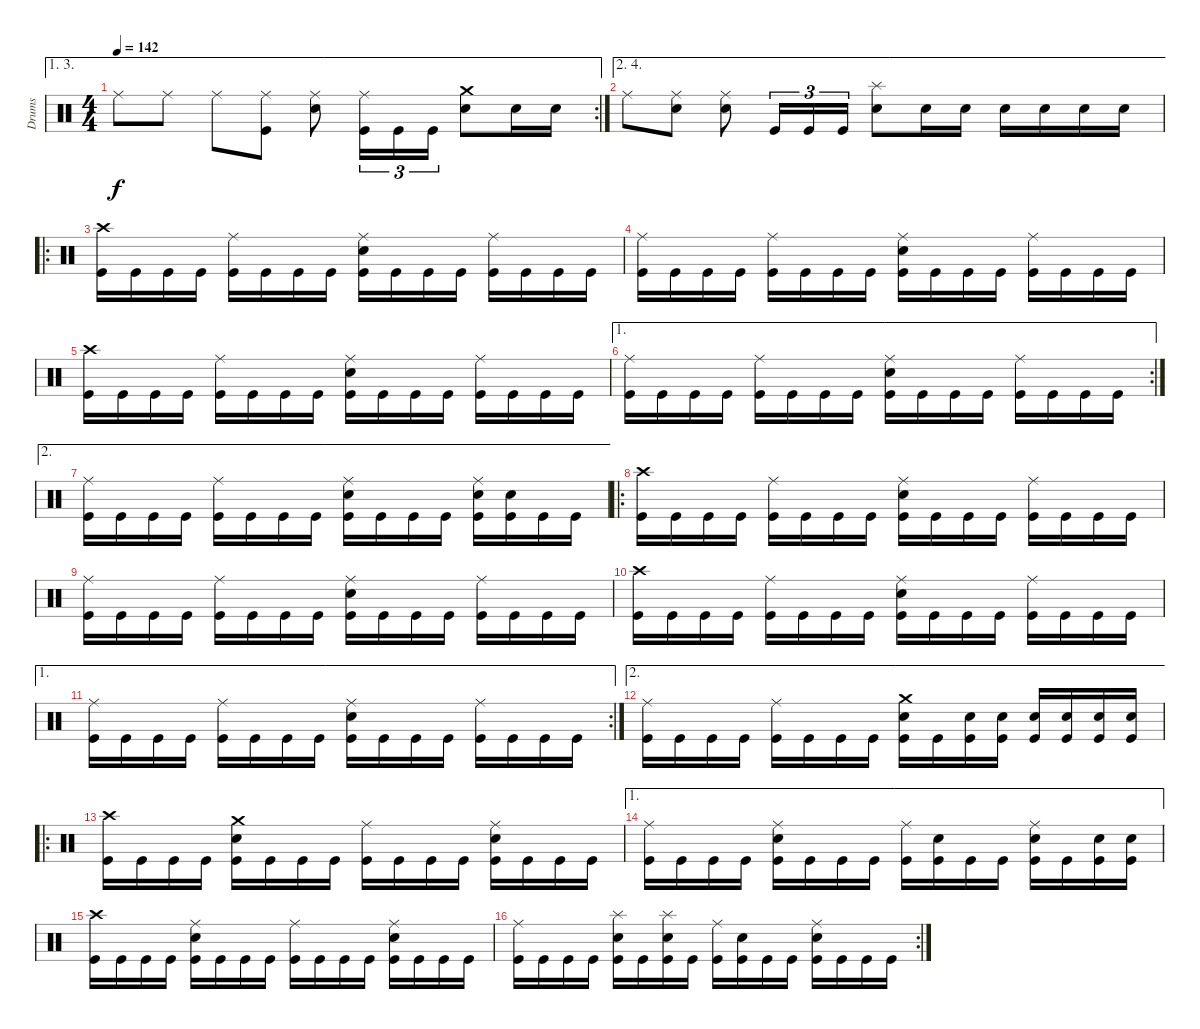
\track ("Drums" "Drums") {instrument percussion}
\staff {score}
\articulation defaults
\ae (1 3)
\rc 2
\ts (4 4)
\tempo 142
\clef neutral
\ks c "Ride (middle)".8{dy f} "Ride (middle)".8 "Ride (middle)".8
("Ride (middle)" "Kick (hit)").8 ("Ride (middle)" "Electric Snare (hit)").8 ("Ride (middle)" "Kick (hit)").16{tu (3 2)} "Kick (hit)".16{tu (3 2)} "Kick (hit)".16{tu (3 2)} ("Crash medium (hit)" "Electric Snare (hit)").8 "Electric Snare (hit)".16 "Electric Snare (hit)".16 |
\ae (2 4)
"Ride (middle)".8 ("Ride (middle)" "Electric Snare (hit)").8 ("Ride (middle)" "Electric Snare (hit)").8 "Kick (hit)".16{tu (3 2)} "Kick (hit)".16{tu (3 2)} "Kick (hit)".16{tu (3 2)} ("Splash (hit)" "Electric Snare (hit)").8 "Electric Snare (hit)".16 "Electric Snare (hit)".16 "Electric Snare (hit)".16 "Electric Snare (hit)".16 "Electric Snare (hit)".16 "Electric Snare (hit)".16 |
\ro
("Crash high (hit)" "Kick (hit)").16 "Kick (hit)".16 "Kick (hit)".16 "Kick (hit)".16 ("Ride (middle)" "Kick (hit)").16 "Kick (hit)".16 "Kick (hit)".16 "Kick (hit)".16 ("Ride (middle)" "Electric Snare (hit)" "Kick (hit)").16 "Kick (hit)".16 "Kick (hit)".16 "Kick (hit)".16 ("Ride (middle)" "Kick (hit)").16 "Kick (hit)".16 "Kick (hit)".16 "Kick (hit)".16 |
("Ride (middle)" "Kick (hit)").16 "Kick (hit)".16 "Kick (hit)".16 "Kick (hit)".16 ("Ride (middle)" "Kick (hit)").16 "Kick (hit)".16 "Kick (hit)".16 "Kick (hit)".16 ("Ride (middle)" "Electric Snare (hit)" "Kick (hit)").16 "Kick (hit)".16 "Kick (hit)".16 "Kick (hit)".16 ("Ride (middle)" "Kick (hit)").16 "Kick (hit)".16 "Kick (hit)".16 "Kick (hit)".16 |
("Crash high (hit)" "Kick (hit)").16 "Kick (hit)".16 "Kick (hit)".16 "Kick (hit)".16 ("Ride (middle)" "Kick (hit)").16 "Kick (hit)".16 "Kick (hit)".16 "Kick (hit)".16 ("Ride (middle)" "Electric Snare (hit)" "Kick (hit)").16 "Kick (hit)".16 "Kick (hit)".16 "Kick (hit)".16 ("Ride (middle)" "Kick (hit)").16 "Kick (hit)".16 "Kick (hit)".16 "Kick (hit)".16 |
\ae 1
\rc 2
("Ride (middle)" "Kick (hit)").16 "Kick (hit)".16 "Kick (hit)".16 "Kick (hit)".16 ("Ride (middle)" "Kick (hit)").16 "Kick (hit)".16 "Kick (hit)".16 "Kick (hit)".16 ("Ride (middle)" "Electric Snare (hit)" "Kick (hit)").16 "Kick (hit)".16 "Kick (hit)".16 "Kick (hit)".16 ("Ride (middle)" "Kick (hit)").16 "Kick (hit)".16 "Kick (hit)".16 "Kick (hit)".16 |
\ae 2
("Ride (middle)" "Kick (hit)").16 "Kick (hit)".16 "Kick (hit)".16 "Kick (hit)".16 ("Ride (middle)" "Kick (hit)").16 "Kick (hit)".16 "Kick (hit)".16 "Kick (hit)".16 ("Ride (middle)" "Electric Snare (hit)" "Kick (hit)").16 "Kick (hit)".16 "Kick (hit)".16 "Kick (hit)".16 ("Ride (middle)" "Electric Snare (hit)" "Kick (hit)").16 ("Electric Snare (hit)" "Kick (hit)").16 "Kick (hit)".16 "Kick (hit)".16 |
\ro
("Crash high (hit)" "Kick (hit)").16 "Kick (hit)".16 "Kick (hit)".16 "Kick (hit)".16 ("Ride (middle)" "Kick (hit)").16 "Kick (hit)".16 "Kick (hit)".16 "Kick (hit)".16 ("Ride (middle)" "Electric Snare (hit)" "Kick (hit)").16 "Kick (hit)".16 "Kick (hit)".16 "Kick (hit)".16 ("Ride (middle)" "Kick (hit)").16 "Kick (hit)".16 "Kick (hit)".16 "Kick (hit)".16 |
("Ride (middle)" "Kick (hit)").16 "Kick (hit)".16 "Kick (hit)".16 "Kick (hit)".16 ("Ride (middle)" "Kick (hit)").16 "Kick (hit)".16 "Kick (hit)".16 "Kick (hit)".16 ("Ride (middle)" "Electric Snare (hit)" "Kick (hit)").16 "Kick (hit)".16 "Kick (hit)".16 "Kick (hit)".16 ("Ride (middle)" "Kick (hit)").16 "Kick (hit)".16 "Kick (hit)".16 "Kick (hit)".16 |
("Crash high (hit)" "Kick (hit)").16 "Kick (hit)".16 "Kick (hit)".16 "Kick (hit)".16 ("Ride (middle)" "Kick (hit)").16 "Kick (hit)".16 "Kick (hit)".16 "Kick (hit)".16 ("Ride (middle)" "Electric Snare (hit)" "Kick (hit)").16 "Kick (hit)".16 "Kick (hit)".16 "Kick (hit)".16 ("Ride (middle)" "Kick (hit)").16 "Kick (hit)".16 "Kick (hit)".16 "Kick (hit)".16 |
\ae 1
\rc 2
("Ride (middle)" "Kick (hit)").16 "Kick (hit)".16 "Kick (hit)".16 "Kick (hit)".16 ("Ride (middle)" "Kick (hit)").16 "Kick (hit)".16 "Kick (hit)".16 "Kick (hit)".16 ("Ride (middle)" "Electric Snare (hit)" "Kick (hit)").16 "Kick (hit)".16 "Kick (hit)".16 "Kick (hit)".16 ("Ride (middle)" "Kick (hit)").16 "Kick (hit)".16 "Kick (hit)".16 "Kick (hit)".16 |
\ae 2
("Ride (middle)" "Kick (hit)").16 "Kick (hit)".16 "Kick (hit)".16 "Kick (hit)".16 ("Ride (middle)" "Kick (hit)").16 "Kick (hit)".16 "Kick (hit)".16 "Kick (hit)".16 ("Crash medium (hit)" "Electric Snare (hit)" "Kick (hit)").16 "Kick (hit)".16 ("Electric Snare (hit)" "Kick (hit)").16 ("Electric Snare (hit)" "Kick (hit)").16 ("Electric Snare (hit)" "Kick (hit)").16 ("Electric Snare (hit)" "Kick (hit)").16 ("Electric Snare (hit)" "Kick (hit)").16 ("Electric Snare (hit)" "Kick (hit)").16 |
\ro
("Crash high (hit)" "Kick (hit)").16 "Kick (hit)".16 "Kick (hit)".16 "Kick (hit)".16 ("Crash medium (hit)" "Electric Snare (hit)" "Kick (hit)").16 "Kick (hit)".16 "Kick (hit)".16 "Kick (hit)".16 ("Ride (middle)" "Kick (hit)").16 "Kick (hit)".16 "Kick (hit)".16 "Kick (hit)".16 ("Ride (middle)" "Electric Snare (hit)" "Kick (hit)").16 "Kick (hit)".16 "Kick (hit)".16 "Kick (hit)".16 |
\ae 1
("Ride (middle)" "Kick (hit)").16 "Kick (hit)".16 "Kick (hit)".16 "Kick (hit)".16 ("Ride (middle)" "Electric Snare (hit)" "Kick (hit)").16 "Kick (hit)".16 "Kick (hit)".16 "Kick (hit)".16 ("Ride (middle)" "Kick (hit)").16 ("Electric Snare (hit)" "Kick (hit)").16 "Kick (hit)".16 "Kick (hit)".16 ("Ride (middle)" "Electric Snare (hit)" "Kick (hit)").16 "Kick (hit)".16 ("Electric Snare (hit)" "Kick (hit)").16 ("Electric Snare (hit)" "Kick (hit)").16 |
("Crash high (hit)" "Kick (hit)").16 "Kick (hit)".16 "Kick (hit)".16 "Kick (hit)".16 ("Ride (middle)" "Electric Snare (hit)" "Kick (hit)").16 "Kick (hit)".16 "Kick (hit)".16 "Kick (hit)".16 ("Ride (middle)" "Kick (hit)").16 "Kick (hit)".16 "Kick (hit)".16 "Kick (hit)".16 ("Ride (middle)" "Electric Snare (hit)" "Kick (hit)").16 "Kick (hit)".16 "Kick (hit)".16 "Kick (hit)".16 |
\rc 2
("Ride (middle)" "Kick (hit)").16 "Kick (hit)".16 "Kick (hit)".16 "Kick (hit)".16 ("Splash (hit)" "Electric Snare (hit)" "Kick (hit)").16 "Kick (hit)".16 ("Splash (hit)" "Electric Snare (hit)" "Kick (hit)").16 "Kick (hit)".16 ("Ride (middle)" "Kick (hit)").16 ("Electric Snare (hit)" "Kick (hit)").16 "Kick (hit)".16 "Kick (hit)".16 ("Ride (middle)" "Electric Snare (hit)" "Kick (hit)").16 "Kick (hit)".16 "Kick (hit)".16 "Kick (hit)".16
